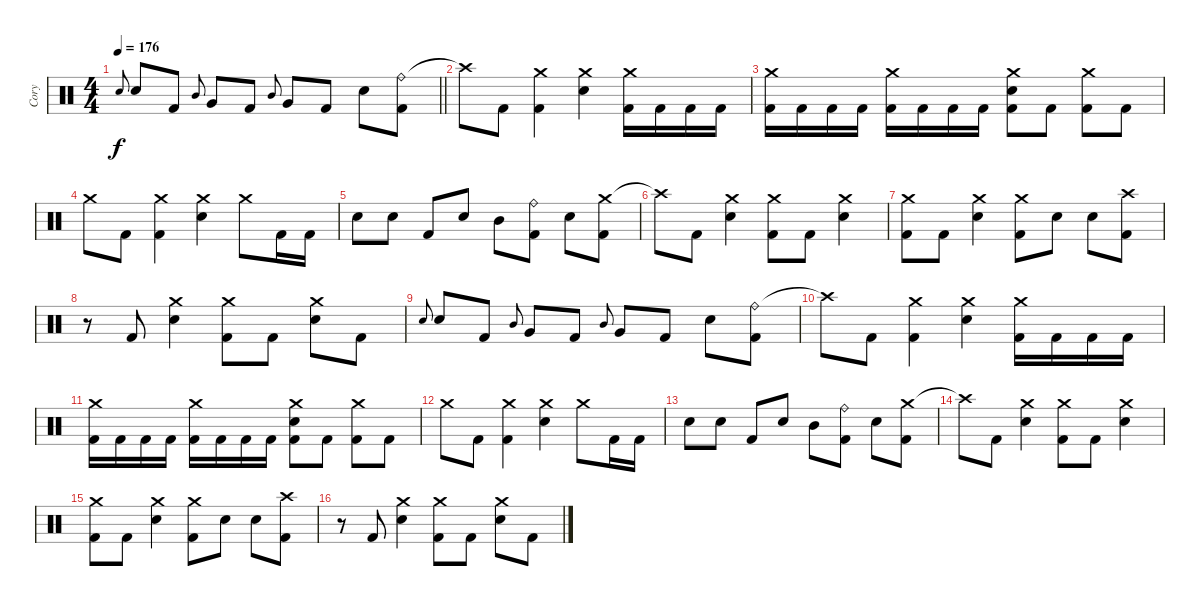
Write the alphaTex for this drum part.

\track ("Cory" "Cory") {instrument percussion}
\staff {score}
\articulation defaults
\ts (4 4)
\tempo 176
\clef neutral
\barLineRight lightlight
\ks c "Snare (hit) 2".8{gr onbeat dy f} "Snare (hit) 2".8 "Kick (hit) 2".8 "Mid Tom (hit)".8{gr onbeat} "Very Low Tom (hit)".8 "Kick (hit) 2".8 "Mid Tom (hit)".8{gr onbeat} "Very Low Tom (hit)".8 "Kick (hit) 2".8 "Snare (hit) 2".8
("Ride (bell)" "Kick (hit) 2").8 |
"Crash high (hit)"{t}.8 "Kick (hit) 2".8 ("Crash medium (hit)" "Kick (hit) 2").4 ("Crash medium (hit)" "Snare (hit) 2").4 ("Crash medium (hit)" "Kick (hit) 2").16 "Kick (hit) 2".16 "Kick (hit) 2".16 "Kick (hit) 2".16 |
("Crash medium (hit)" "Kick (hit) 2").16 "Kick (hit) 2".16 "Kick (hit) 2".16 "Kick (hit) 2".16 ("Crash medium (hit)" "Kick (hit) 2").16 "Kick (hit) 2".16 "Kick (hit) 2".16 "Kick (hit) 2".16 ("Crash medium (hit)" "Snare (hit) 2" "Kick (hit) 2").8 "Kick (hit) 2".8 ("Crash medium (hit)" "Kick (hit) 2").8 "Kick (hit) 2".8 |
"Crash medium (hit)".8 "Kick (hit) 2".8 ("Crash medium (hit)" "Kick (hit) 2").4 ("Crash medium (hit)" "Snare (hit) 2").4 "Crash medium (hit)".8 "Kick (hit) 2".16 "Kick (hit) 2".16 |
"Snare (hit) 2".8 "Snare (hit) 2".8 "Kick (hit) 2".8 "Snare (hit) 2".8 "Mid Tom (hit)".8 ("Ride (bell)" "Kick (hit) 2").8 "Snare (hit) 2".8 ("Crash medium (hit)" "Kick (hit) 2").8 |
"Crash high (hit)"{t}.8 "Kick (hit) 2".8 ("Crash medium (hit)" "Snare (hit) 2").4 ("Crash medium (hit)" "Kick (hit) 2").8 "Kick (hit) 2".8 ("Crash medium (hit)" "Snare (hit) 2").4 |
("Crash medium (hit)" "Kick (hit) 2").8 "Kick (hit) 2".8 ("Crash medium (hit)" "Snare (hit) 2").4 ("Crash medium (hit)" "Kick (hit) 2").8 "Snare (hit) 2".8 "Snare (hit) 2".8 ("Crash high (hit)" "Kick (hit) 2").8 |
r.8 "Kick (hit) 2".8 ("Crash medium (hit)" "Snare (hit) 2").4 ("Crash medium (hit)" "Kick (hit) 2").8 "Kick (hit) 2".8 ("Crash medium (hit)" "Snare (hit) 2").8 "Kick (hit) 2".8 |
"Snare (hit) 2".8{gr onbeat} "Snare (hit) 2".8 "Kick (hit) 2".8 "Mid Tom (hit)".8{gr onbeat} "Very Low Tom (hit)".8 "Kick (hit) 2".8 "Mid Tom (hit)".8{gr onbeat} "Very Low Tom (hit)".8 "Kick (hit) 2".8 "Snare (hit) 2".8 ("Ride (bell)" "Kick (hit) 2").8 |
"Crash high (hit)"{t}.8 "Kick (hit) 2".8 ("Crash medium (hit)" "Kick (hit) 2").4 ("Crash medium (hit)" "Snare (hit) 2").4 ("Crash medium (hit)" "Kick (hit) 2").16 "Kick (hit) 2".16 "Kick (hit) 2".16 "Kick (hit) 2".16 |
("Crash medium (hit)" "Kick (hit) 2").16 "Kick (hit) 2".16 "Kick (hit) 2".16 "Kick (hit) 2".16 ("Crash medium (hit)" "Kick (hit) 2").16 "Kick (hit) 2".16 "Kick (hit) 2".16 "Kick (hit) 2".16 ("Crash medium (hit)" "Snare (hit) 2" "Kick (hit) 2").8 "Kick (hit) 2".8 ("Crash medium (hit)" "Kick (hit) 2").8 "Kick (hit) 2".8 |
"Crash medium (hit)".8 "Kick (hit) 2".8 ("Crash medium (hit)" "Kick (hit) 2").4 ("Crash medium (hit)" "Snare (hit) 2").4 "Crash medium (hit)".8 "Kick (hit) 2".16 "Kick (hit) 2".16 |
"Snare (hit) 2".8 "Snare (hit) 2".8 "Kick (hit) 2".8 "Snare (hit) 2".8 "Mid Tom (hit)".8 ("Ride (bell)" "Kick (hit) 2").8 "Snare (hit) 2".8 ("Crash medium (hit)" "Kick (hit) 2").8 |
"Crash high (hit)"{t}.8 "Kick (hit) 2".8 ("Crash medium (hit)" "Snare (hit) 2").4 ("Crash medium (hit)" "Kick (hit) 2").8 "Kick (hit) 2".8 ("Crash medium (hit)" "Snare (hit) 2").4 |
("Crash medium (hit)" "Kick (hit) 2").8 "Kick (hit) 2".8 ("Crash medium (hit)" "Snare (hit) 2").4 ("Crash medium (hit)" "Kick (hit) 2").8 "Snare (hit) 2".8 "Snare (hit) 2".8 ("Crash high (hit)" "Kick (hit) 2").8 |
r.8 "Kick (hit) 2".8 ("Crash medium (hit)" "Snare (hit) 2").4 ("Crash medium (hit)" "Kick (hit) 2").8 "Kick (hit) 2".8 ("Crash medium (hit)" "Snare (hit) 2").8 "Kick (hit) 2".8
